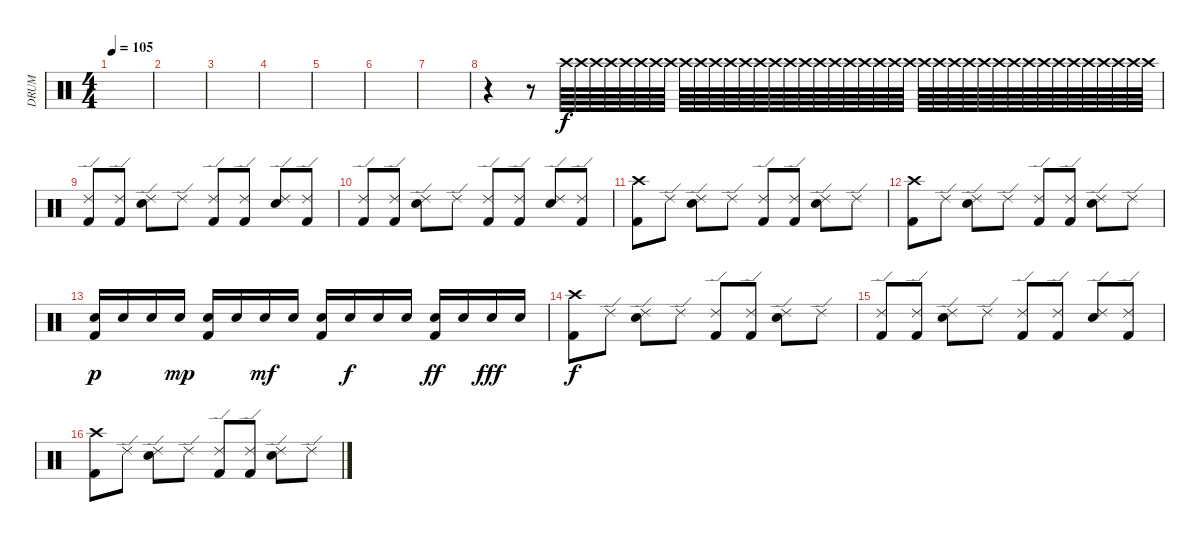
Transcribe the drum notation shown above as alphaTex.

\track ("DRUM" "DRUM") {instrument percussion}
\staff {score}
\articulation defaults
\ts (4 4)
\tempo 105
\clef neutral
\ks c
|
|
|
|
|
|
|
r.4 r.8{volume 2} "Crash high (hit)".64{volume 16} "Crash high (hit)".64 "Crash high (hit)".64 "Crash high (hit)".64 "Crash high (hit)".64 "Crash high (hit)".64 "Crash high (hit)".64 "Crash high (hit)".64 "Crash high (hit)".64 "Crash high (hit)".64 "Crash high (hit)".64 "Crash high (hit)".64 "Crash high (hit)".64 "Crash high (hit)".64 "Crash high (hit)".64 "Crash high (hit)".64 "Crash high (hit)".64 "Crash high (hit)".64 "Crash high (hit)".64 "Crash high (hit)".64 "Crash high (hit)".64 "Crash high (hit)".64 "Crash high (hit)".64 "Crash high (hit)".64 "Crash high (hit)".64 "Crash high (hit)".64 "Crash high (hit)".64 "Crash high (hit)".64 "Crash high (hit)".64 "Crash high (hit)".64 "Crash high (hit)".64 "Crash high (hit)".64 "Crash high (hit)".64 "Crash high (hit)".64 "Crash high (hit)".64 "Crash high (hit)".64 "Crash high (hit)".64 "Crash high (hit)".64 "Crash high (hit)".64 "Crash high (hit)".64 |
("Ride (edge) 2" "Kick (hit) 2").8 ("Ride (edge) 2" "Kick (hit) 2").8 ("Ride (edge) 2" "Snare (hit) 2").8 "Ride (edge) 2".8 ("Ride (edge) 2" "Kick (hit) 2").8 ("Ride (edge) 2" "Kick (hit) 2").8 ("Ride (edge) 2" "Snare (hit) 2").8 ("Ride (edge) 2" "Kick (hit) 2").8 |
("Ride (edge) 2" "Kick (hit) 2").8 ("Ride (edge) 2" "Kick (hit) 2").8 ("Ride (edge) 2" "Snare (hit) 2").8 "Ride (edge) 2".8 ("Ride (edge) 2" "Kick (hit) 2").8 ("Ride (edge) 2" "Kick (hit) 2").8 ("Ride (edge) 2" "Snare (hit) 2").8 ("Ride (edge) 2" "Kick (hit) 2").8 |
("Crash high (hit)" "Kick (hit) 2").8 "Ride (edge) 2".8 ("Ride (edge) 2" "Snare (hit) 2").8 "Ride (edge) 2".8 ("Ride (edge) 2" "Kick (hit) 2").8 ("Ride (edge) 2" "Kick (hit) 2").8 ("Ride (edge) 2" "Snare (hit) 2").8 "Ride (edge) 2".8 |
("Crash high (hit)" "Kick (hit) 2").8 "Ride (edge) 2".8 ("Ride (edge) 2" "Snare (hit) 2").8 "Ride (edge) 2".8 ("Ride (edge) 2" "Kick (hit) 2").8 ("Ride (edge) 2" "Kick (hit) 2").8 ("Ride (edge) 2" "Snare (hit) 2").8 "Ride (edge) 2".8 |
("Snare (hit) 2" "Kick (hit) 2").16{dy p} "Snare (hit) 2".16 "Snare (hit) 2".16 "Snare (hit) 2".16{dy mp} ("Snare (hit) 2" "Kick (hit) 2").16 "Snare (hit) 2".16 "Snare (hit) 2".16{dy mf} "Snare (hit) 2".16 ("Snare (hit) 2" "Kick (hit) 2").16 "Snare (hit) 2".16{dy f} "Snare (hit) 2".16 "Snare (hit) 2".16 ("Snare (hit) 2" "Kick (hit) 2").16{dy ff} "Snare (hit) 2".16 "Snare (hit) 2".16{dy fff} "Snare (hit) 2".16 |
("Crash high (hit)" "Kick (hit) 2").8{dy f} "Ride (edge) 2".8 ("Ride (edge) 2" "Snare (hit) 2").8 "Ride (edge) 2".8 ("Ride (edge) 2" "Kick (hit) 2").8 ("Ride (edge) 2" "Kick (hit) 2").8 ("Ride (edge) 2" "Snare (hit) 2").8 "Ride (edge) 2".8 |
("Ride (edge) 2" "Kick (hit) 2").8 ("Ride (edge) 2" "Kick (hit) 2").8 ("Ride (edge) 2" "Snare (hit) 2").8 "Ride (edge) 2".8 ("Ride (edge) 2" "Kick (hit) 2").8 ("Ride (edge) 2" "Kick (hit) 2").8 ("Ride (edge) 2" "Snare (hit) 2").8 ("Ride (edge) 2" "Kick (hit) 2").8 |
("Crash high (hit)" "Kick (hit) 2").8 "Ride (edge) 2".8 ("Ride (edge) 2" "Snare (hit) 2").8 "Ride (edge) 2".8 ("Ride (edge) 2" "Kick (hit) 2").8 ("Ride (edge) 2" "Kick (hit) 2").8 ("Ride (edge) 2" "Snare (hit) 2").8 "Ride (edge) 2".8
